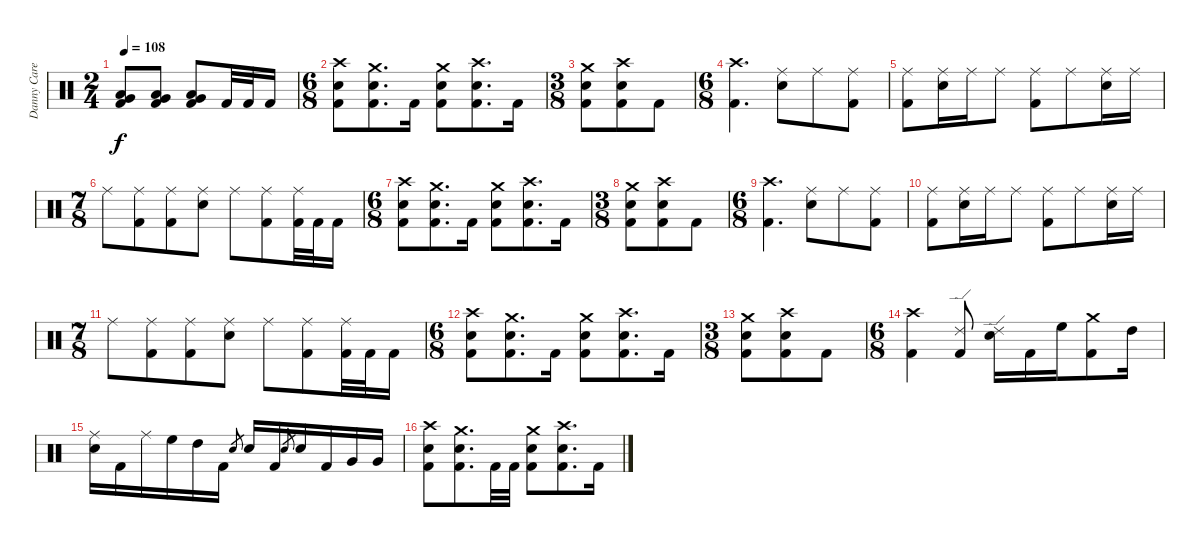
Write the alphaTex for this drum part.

\track ("Danny Carey" "Danny Care") {instrument percussion}
\staff {score}
\articulation defaults
\ts (2 4)
\tempo 108
\clef neutral
\ks c
("Very Low Tom (hit)" "Low Floor Tom (hit)" "Kick (hit) 2").8{dy f} ("Very Low Tom (hit)" "Low Floor Tom (hit)" "Kick (hit) 2").8 ("Very Low Tom (hit)" "Low Floor Tom (hit)" "Kick (hit) 2").8 "Kick (hit) 2".32 "Kick (hit) 2".32 "Kick (hit) 2".16 |
\ts (6 8)
("Crash high (hit)" "Electric Snare (hit)" "Kick (hit) 2").8 ("Crash medium (hit)" "Electric Snare (hit)" "Kick (hit) 2").8{d} "Kick (hit) 2".16 ("Crash medium (hit)" "Electric Snare (hit)" "Kick (hit) 2").8 ("Crash high (hit)" "Electric Snare (hit)" "Kick (hit) 2").8{d} "Kick (hit) 2".16 |
\ts (3 8)
("Crash medium (hit)" "Electric Snare (hit)" "Kick (hit) 2").8 ("Crash high (hit)" "Electric Snare (hit)" "Kick (hit) 2").8 "Kick (hit) 2".8 |
\ts (6 8)
("Crash high (hit)" "Kick (hit) 2").4{d} ("Ride (middle)" "Electric Snare (hit)").8 "Ride (middle)".8 ("Ride (middle)" "Kick (hit) 2").8 |
("Ride (middle)" "Kick (hit) 2").8 ("Ride (middle)" "Electric Snare (hit)").16 "Ride (middle)".16 "Ride (middle)".8 ("Ride (middle)" "Kick (hit) 2").8 "Ride (middle)".8 ("Ride (middle)" "Electric Snare (hit)").16 "Ride (middle)".16 |
\ts (7 8)
"Ride (middle)".8 ("Ride (middle)" "Kick (hit) 2").8 ("Ride (middle)" "Kick (hit) 2").8 ("Ride (middle)" "Electric Snare (hit)").8 "Ride (middle)".8 ("Ride (middle)" "Kick (hit) 2").8 ("Ride (middle)" "Kick (hit) 2").32 "Kick (hit) 2".32 "Kick (hit) 2".16 |
\ts (6 8)
("Crash high (hit)" "Electric Snare (hit)" "Kick (hit) 2").8 ("Crash medium (hit)" "Electric Snare (hit)" "Kick (hit) 2").8{d} "Kick (hit) 2".16 ("Crash medium (hit)" "Electric Snare (hit)" "Kick (hit) 2").8 ("Crash high (hit)" "Electric Snare (hit)" "Kick (hit) 2").8{d} "Kick (hit) 2".16 |
\ts (3 8)
("Crash medium (hit)" "Electric Snare (hit)" "Kick (hit) 2").8 ("Crash high (hit)" "Electric Snare (hit)" "Kick (hit) 2").8 "Kick (hit) 2".8 |
\ts (6 8)
("Crash high (hit)" "Kick (hit) 2").4{d} ("Ride (middle)" "Electric Snare (hit)").8 "Ride (middle)".8 ("Ride (middle)" "Kick (hit) 2").8 |
("Ride (middle)" "Kick (hit) 2").8 ("Ride (middle)" "Electric Snare (hit)").16 "Ride (middle)".16 "Ride (middle)".8 ("Ride (middle)" "Kick (hit) 2").8 "Ride (middle)".8 ("Ride (middle)" "Electric Snare (hit)").16 "Ride (middle)".16 |
\ts (7 8)
"Ride (middle)".8 ("Ride (middle)" "Kick (hit) 2").8 ("Ride (middle)" "Kick (hit) 2").8 ("Ride (middle)" "Electric Snare (hit)").8 "Ride (middle)".8 ("Ride (middle)" "Kick (hit) 2").8 ("Ride (middle)" "Kick (hit) 2").32 "Kick (hit) 2".32 "Kick (hit) 2".16 |
\ts (6 8)
("Crash high (hit)" "Electric Snare (hit)" "Kick (hit) 2").8 ("Crash medium (hit)" "Electric Snare (hit)" "Kick (hit) 2").8{d} "Kick (hit) 2".16 ("Crash medium (hit)" "Electric Snare (hit)" "Kick (hit) 2").8 ("Crash high (hit)" "Electric Snare (hit)" "Kick (hit) 2").8{d} "Kick (hit) 2".16 |
\ts (3 8)
("Crash medium (hit)" "Electric Snare (hit)" "Kick (hit) 2").8 ("Crash high (hit)" "Electric Snare (hit)" "Kick (hit) 2").8 "Kick (hit) 2".8 |
\ts (6 8)
("Crash high (hit)" "Kick (hit) 2").4 ("Ride (edge) 2" "Kick (hit) 2").8 ("Ride (edge) 2" "Electric Snare (hit)").16 "Kick (hit) 2".16 "High Floor Tom (hit)".16 ("Crash medium (hit)" "Kick (hit) 2").8 "High Tom (hit)".16 |
("Ride (middle)" "Electric Snare (hit)").16 "Kick (hit) 2".16 "Ride (middle)".16 "High Floor Tom (hit)".16 "High Tom (hit)".16 "Kick (hit) 2".16 "Electric Snare (hit)".8{gr} "Electric Snare (hit)".16 "Kick (hit) 2".16 "Electric Snare (hit)".8{gr} "Electric Snare (hit)".16 "Kick (hit) 2".16 "Very Low Tom (hit)".16 "Very Low Tom (hit)".16 |
("Crash high (hit)" "Electric Snare (hit)" "Kick (hit) 2").8 ("Crash medium (hit)" "Electric Snare (hit)" "Kick (hit) 2").8{d} "Kick (hit) 2".32 "Kick (hit) 2".32 ("Crash medium (hit)" "Electric Snare (hit)" "Kick (hit) 2").8 ("Crash high (hit)" "Electric Snare (hit)" "Kick (hit) 2").8{d} "Kick (hit) 2".16
